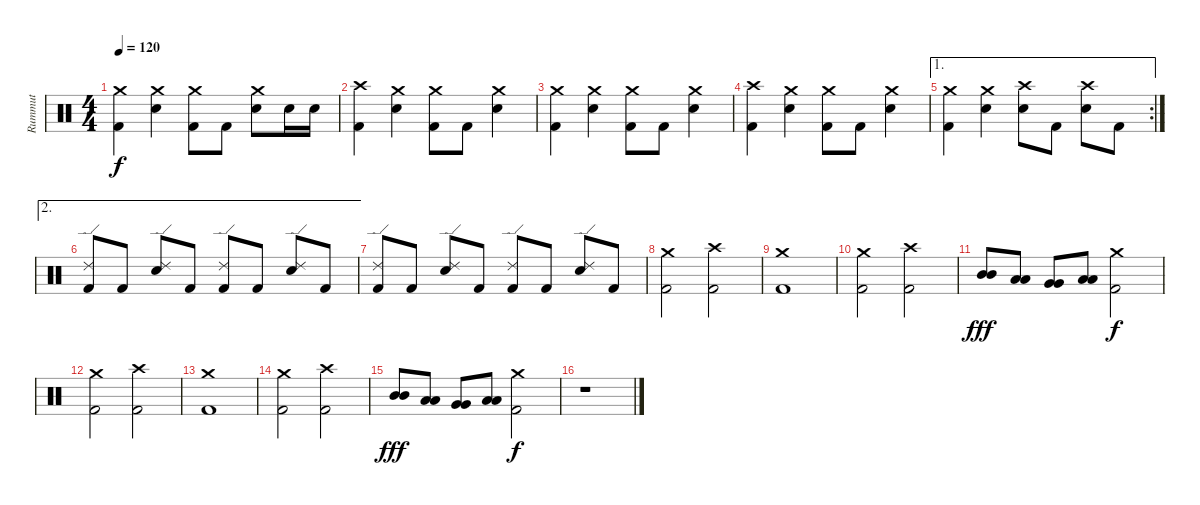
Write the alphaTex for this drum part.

\track ("Rummut" "Rummut") {instrument percussion}
\staff {score}
\articulation defaults
\ts (4 4)
\tempo 120
\clef neutral
\ks c
("Kick (hit) 2" "Crash medium (hit)").4{dy f} ("Crash medium (hit)" "Snare (hit) 2").4 ("Kick (hit) 2" "Crash medium (hit)").8 "Kick (hit) 2".8 ("Crash medium (hit)" "Snare (hit) 2").8 "Snare (hit) 2".16 "Snare (hit) 2".16 |
("Kick (hit) 2" "Crash high (hit)").4 ("Crash medium (hit)" "Snare (hit) 2").4 ("Kick (hit) 2" "Crash medium (hit)").8 "Kick (hit) 2".8 ("Crash medium (hit)" "Snare (hit) 2").4 |
("Kick (hit) 2" "Crash medium (hit)").4 ("Crash medium (hit)" "Snare (hit) 2").4 ("Kick (hit) 2" "Crash medium (hit)").8 "Kick (hit) 2".8 ("Crash medium (hit)" "Snare (hit) 2").4 |
("Kick (hit) 2" "Crash high (hit)").4 ("Crash medium (hit)" "Snare (hit) 2").4 ("Kick (hit) 2" "Crash medium (hit)").8 "Kick (hit) 2".8 ("Crash medium (hit)" "Snare (hit) 2").4 |
\ae 1
\rc 2
("Kick (hit) 2" "Crash medium (hit)").4 ("Crash medium (hit)" "Snare (hit) 2").4 ("Crash high (hit)" "Snare (hit) 2").8 "Kick (hit) 2".8 ("Crash high (hit)" "Snare (hit) 2").8 "Kick (hit) 2".8 |
\ae 2
("Kick (hit) 2" "Ride (edge) 2").8 "Kick (hit) 2".8 ("Ride (edge) 2" "Snare (hit) 2").8 "Kick (hit) 2".8 ("Kick (hit) 2" "Ride (edge) 2").8 "Kick (hit) 2".8 ("Ride (edge) 2" "Snare (hit) 2").8 "Kick (hit) 2".8 |
("Kick (hit) 2" "Ride (edge) 2").8 "Kick (hit) 2".8 ("Ride (edge) 2" "Snare (hit) 2").8 "Kick (hit) 2".8 ("Kick (hit) 2" "Ride (edge) 2").8 "Kick (hit) 2".8 ("Ride (edge) 2" "Snare (hit) 2").8 "Kick (hit) 2".8 |
("Kick (hit) 2" "Crash medium (hit)").2 ("Kick (hit) 2" "Crash high (hit)").2 |
("Kick (hit) 2" "Crash medium (hit)").1 |
("Kick (hit) 2" "Crash medium (hit)").2 ("Kick (hit) 2" "Crash high (hit)").2 |
("Mid Tom (hit)" "Mid Tom (hit)").8{dy fff} ("Low Tom (hit)" "Low Tom (hit)").8 ("Very Low Tom (hit)" "Very Low Tom (hit)").8 ("Low Floor Tom (hit)" "Low Floor Tom (hit)").8 ("Kick (hit) 2" "Crash medium (hit)").2{dy f} |
("Kick (hit) 2" "Crash medium (hit)").2 ("Kick (hit) 2" "Crash high (hit)").2 |
("Kick (hit) 2" "Crash medium (hit)").1 |
("Kick (hit) 2" "Crash medium (hit)").2 ("Kick (hit) 2" "Crash high (hit)").2 |
("Mid Tom (hit)" "Mid Tom (hit)").8{dy fff} ("Low Tom (hit)" "Low Tom (hit)").8 ("Very Low Tom (hit)" "Very Low Tom (hit)").8 ("Low Floor Tom (hit)" "Low Floor Tom (hit)").8 ("Kick (hit) 2" "Crash medium (hit)").2{dy f} |
r.1
